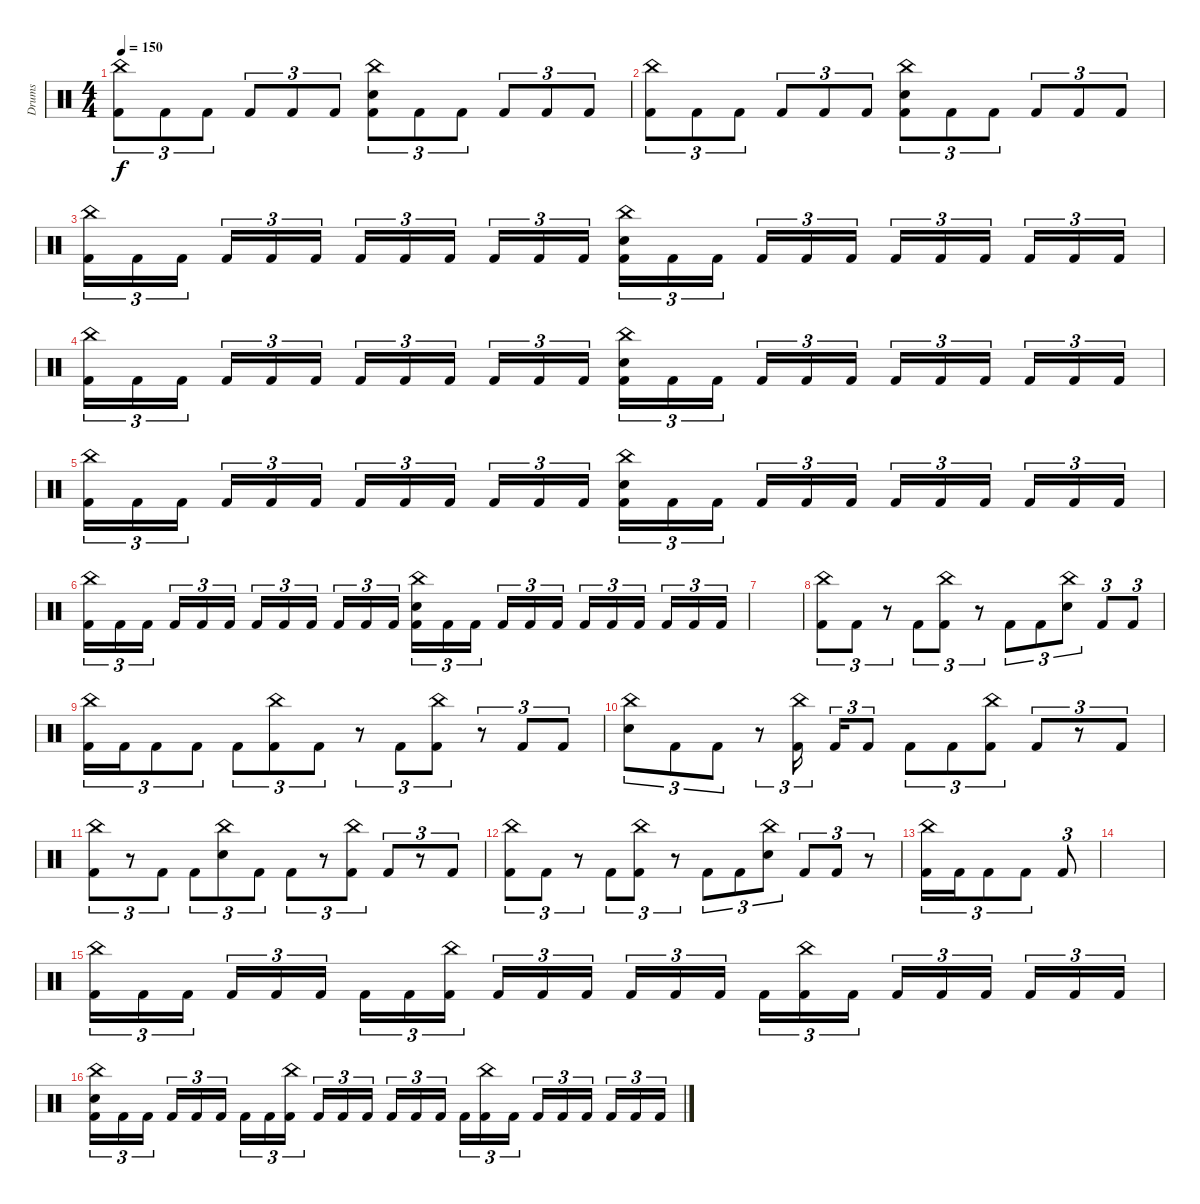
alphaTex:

\track ("Drums" "Drums") {instrument percussion}
\staff {score}
\articulation defaults
\ts (4 4)
\tempo 150
\clef neutral
\ks c
("China (hit)" "Kick (hit) 2").8{tu (3 2) dy f} "Kick (hit) 2".8{tu (3 2)} "Kick (hit) 2".8{tu (3 2)} "Kick (hit) 2".8{tu (3 2)} "Kick (hit) 2".8{tu (3 2)} "Kick (hit) 2".8{tu (3 2)} ("China (hit)" "Snare (hit) 2" "Kick (hit) 2").8{tu (3 2)} "Kick (hit) 2".8{tu (3 2)} "Kick (hit) 2".8{tu (3 2)} "Kick (hit) 2".8{tu (3 2)} "Kick (hit) 2".8{tu (3 2)} "Kick (hit) 2".8{tu (3 2)} |
("China (hit)" "Kick (hit) 2").8{tu (3 2)} "Kick (hit) 2".8{tu (3 2)} "Kick (hit) 2".8{tu (3 2)} "Kick (hit) 2".8{tu (3 2)} "Kick (hit) 2".8{tu (3 2)} "Kick (hit) 2".8{tu (3 2)} ("China (hit)" "Snare (hit) 2" "Kick (hit) 2").8{tu (3 2)} "Kick (hit) 2".8{tu (3 2)} "Kick (hit) 2".8{tu (3 2)} "Kick (hit) 2".8{tu (3 2)} "Kick (hit) 2".8{tu (3 2)} "Kick (hit) 2".8{tu (3 2)} |
("China (hit)" "Kick (hit) 2").16{tu (3 2)} "Kick (hit) 2".16{tu (3 2)} "Kick (hit) 2".16{tu (3 2) beam splitsecondary} "Kick (hit) 2".16{tu (3 2)} "Kick (hit) 2".16{tu (3 2)} "Kick (hit) 2".16{tu (3 2)} "Kick (hit) 2".16{tu (3 2)} "Kick (hit) 2".16{tu (3 2)} "Kick (hit) 2".16{tu (3 2) beam splitsecondary} "Kick (hit) 2".16{tu (3 2)} "Kick (hit) 2".16{tu (3 2)} "Kick (hit) 2".16{tu (3 2)} ("China (hit)" "Snare (hit) 2" "Kick (hit) 2").16{tu (3 2)} "Kick (hit) 2".16{tu (3 2)} "Kick (hit) 2".16{tu (3 2) beam splitsecondary} "Kick (hit) 2".16{tu (3 2)} "Kick (hit) 2".16{tu (3 2)} "Kick (hit) 2".16{tu (3 2)} "Kick (hit) 2".16{tu (3 2)} "Kick (hit) 2".16{tu (3 2)} "Kick (hit) 2".16{tu (3 2) beam splitsecondary} "Kick (hit) 2".16{tu (3 2)} "Kick (hit) 2".16{tu (3 2)} "Kick (hit) 2".16{tu (3 2)} |
("China (hit)" "Kick (hit) 2").16{tu (3 2)} "Kick (hit) 2".16{tu (3 2)} "Kick (hit) 2".16{tu (3 2) beam splitsecondary} "Kick (hit) 2".16{tu (3 2)} "Kick (hit) 2".16{tu (3 2)} "Kick (hit) 2".16{tu (3 2)} "Kick (hit) 2".16{tu (3 2)} "Kick (hit) 2".16{tu (3 2)} "Kick (hit) 2".16{tu (3 2) beam splitsecondary} "Kick (hit) 2".16{tu (3 2)} "Kick (hit) 2".16{tu (3 2)} "Kick (hit) 2".16{tu (3 2)} ("China (hit)" "Snare (hit) 2" "Kick (hit) 2").16{tu (3 2)} "Kick (hit) 2".16{tu (3 2)} "Kick (hit) 2".16{tu (3 2) beam splitsecondary} "Kick (hit) 2".16{tu (3 2)} "Kick (hit) 2".16{tu (3 2)} "Kick (hit) 2".16{tu (3 2)} "Kick (hit) 2".16{tu (3 2)} "Kick (hit) 2".16{tu (3 2)} "Kick (hit) 2".16{tu (3 2) beam splitsecondary} "Kick (hit) 2".16{tu (3 2)} "Kick (hit) 2".16{tu (3 2)} "Kick (hit) 2".16{tu (3 2)} |
("China (hit)" "Kick (hit) 2").16{tu (3 2)} "Kick (hit) 2".16{tu (3 2)} "Kick (hit) 2".16{tu (3 2) beam splitsecondary} "Kick (hit) 2".16{tu (3 2)} "Kick (hit) 2".16{tu (3 2)} "Kick (hit) 2".16{tu (3 2)} "Kick (hit) 2".16{tu (3 2)} "Kick (hit) 2".16{tu (3 2)} "Kick (hit) 2".16{tu (3 2) beam splitsecondary} "Kick (hit) 2".16{tu (3 2)} "Kick (hit) 2".16{tu (3 2)} "Kick (hit) 2".16{tu (3 2)} ("China (hit)" "Snare (hit) 2" "Kick (hit) 2").16{tu (3 2)} "Kick (hit) 2".16{tu (3 2)} "Kick (hit) 2".16{tu (3 2) beam splitsecondary} "Kick (hit) 2".16{tu (3 2)} "Kick (hit) 2".16{tu (3 2)} "Kick (hit) 2".16{tu (3 2)} "Kick (hit) 2".16{tu (3 2)} "Kick (hit) 2".16{tu (3 2)} "Kick (hit) 2".16{tu (3 2) beam splitsecondary} "Kick (hit) 2".16{tu (3 2)} "Kick (hit) 2".16{tu (3 2)} "Kick (hit) 2".16{tu (3 2)} |
("China (hit)" "Kick (hit) 2").16{tu (3 2)} "Kick (hit) 2".16{tu (3 2)} "Kick (hit) 2".16{tu (3 2) beam splitsecondary} "Kick (hit) 2".16{tu (3 2)} "Kick (hit) 2".16{tu (3 2)} "Kick (hit) 2".16{tu (3 2)} "Kick (hit) 2".16{tu (3 2)} "Kick (hit) 2".16{tu (3 2)} "Kick (hit) 2".16{tu (3 2) beam splitsecondary} "Kick (hit) 2".16{tu (3 2)} "Kick (hit) 2".16{tu (3 2)} "Kick (hit) 2".16{tu (3 2)} ("China (hit)" "Snare (hit) 2" "Kick (hit) 2").16{tu (3 2)} "Kick (hit) 2".16{tu (3 2)} "Kick (hit) 2".16{tu (3 2) beam splitsecondary} "Kick (hit) 2".16{tu (3 2)} "Kick (hit) 2".16{tu (3 2)} "Kick (hit) 2".16{tu (3 2)} "Kick (hit) 2".16{tu (3 2)} "Kick (hit) 2".16{tu (3 2)} "Kick (hit) 2".16{tu (3 2) beam splitsecondary} "Kick (hit) 2".16{tu (3 2)} "Kick (hit) 2".16{tu (3 2)} "Kick (hit) 2".16{tu (3 2)} |
|
("China (hit)" "Kick (hit) 2").8{tu (3 2)} "Kick (hit) 2".8{tu (3 2)} r.8{tu (3 2)} "Kick (hit) 2".8{tu (3 2)} ("China (hit)" "Kick (hit) 2").8{tu (3 2)} r.8{tu (3 2)} "Kick (hit) 2".8{tu (3 2)} "Kick (hit) 2".8{tu (3 2)} ("China (hit)" "Snare (hit) 2").8{tu (3 2)} "Kick (hit) 2".8{tu (3 2)} "Kick (hit) 2".8{tu (3 2)} |
("China (hit)" "Kick (hit) 2").16{tu (3 2)} "Kick (hit) 2".16{tu (3 2)} "Kick (hit) 2".8{tu (3 2)} "Kick (hit) 2".8{tu (3 2)} "Kick (hit) 2".8{tu (3 2)} ("China (hit)" "Kick (hit) 2").8{tu (3 2)} "Kick (hit) 2".8{tu (3 2)} r.8{tu (3 2)} "Kick (hit) 2".8{tu (3 2)} ("China (hit)" "Kick (hit) 2").8{tu (3 2)} r.8{tu (3 2)} "Kick (hit) 2".8{tu (3 2)} "Kick (hit) 2".8{tu (3 2)} |
("China (hit)" "Snare (hit) 2").8{tu (3 2)} "Kick (hit) 2".8{tu (3 2)} "Kick (hit) 2".8{tu (3 2)} r.8{tu (3 2)} ("China (hit)" "Kick (hit) 2").16{tu (3 2) beam splitsecondary} "Kick (hit) 2".16{tu (3 2)} "Kick (hit) 2".8{tu (3 2)} "Kick (hit) 2".8{tu (3 2)} "Kick (hit) 2".8{tu (3 2)} ("China (hit)" "Kick (hit) 2").8{tu (3 2)} "Kick (hit) 2".8{tu (3 2)} r.8{tu (3 2)} "Kick (hit) 2".8{tu (3 2)} |
("China (hit)" "Kick (hit) 2").8{tu (3 2)} r.8{tu (3 2)} "Kick (hit) 2".8{tu (3 2)} "Kick (hit) 2".8{tu (3 2)} ("China (hit)" "Snare (hit) 2").8{tu (3 2)} "Kick (hit) 2".8{tu (3 2)} "Kick (hit) 2".8{tu (3 2)} r.8{tu (3 2)} ("China (hit)" "Kick (hit) 2").8{tu (3 2)} "Kick (hit) 2".8{tu (3 2)} r.8{tu (3 2)} "Kick (hit) 2".8{tu (3 2)} |
("China (hit)" "Kick (hit) 2").8{tu (3 2)} "Kick (hit) 2".8{tu (3 2)} r.8{tu (3 2)} "Kick (hit) 2".8{tu (3 2)} ("China (hit)" "Kick (hit) 2").8{tu (3 2)} r.8{tu (3 2)} "Kick (hit) 2".8{tu (3 2)} "Kick (hit) 2".8{tu (3 2)} ("China (hit)" "Snare (hit) 2").8{tu (3 2)} "Kick (hit) 2".8{tu (3 2)} "Kick (hit) 2".8{tu (3 2)} r.8{tu (3 2)} |
("China (hit)" "Kick (hit) 2").16{tu (3 2)} "Kick (hit) 2".16{tu (3 2)} "Kick (hit) 2".8{tu (3 2)} "Kick (hit) 2".8{tu (3 2)} "Kick (hit) 2".8{tu (3 2)} |
|
("China (hit)" "Kick (hit) 2").16{tu (3 2)} "Kick (hit) 2".16{tu (3 2)} "Kick (hit) 2".16{tu (3 2) beam splitsecondary} "Kick (hit) 2".16{tu (3 2)} "Kick (hit) 2".16{tu (3 2)} "Kick (hit) 2".16{tu (3 2)} "Kick (hit) 2".16{tu (3 2)} "Kick (hit) 2".16{tu (3 2)} ("China (hit)" "Kick (hit) 2").16{tu (3 2) beam splitsecondary} "Kick (hit) 2".16{tu (3 2)} "Kick (hit) 2".16{tu (3 2)} "Kick (hit) 2".16{tu (3 2)} "Kick (hit) 2".16{tu (3 2)} "Kick (hit) 2".16{tu (3 2)} "Kick (hit) 2".16{tu (3 2) beam splitsecondary} "Kick (hit) 2".16{tu (3 2)} ("China (hit)" "Kick (hit) 2").16{tu (3 2)} "Kick (hit) 2".16{tu (3 2)} "Kick (hit) 2".16{tu (3 2)} "Kick (hit) 2".16{tu (3 2)} "Kick (hit) 2".16{tu (3 2) beam splitsecondary} "Kick (hit) 2".16{tu (3 2)} "Kick (hit) 2".16{tu (3 2)} "Kick (hit) 2".16{tu (3 2)} |
("China (hit)" "Snare (hit) 2" "Kick (hit) 2").16{tu (3 2)} "Kick (hit) 2".16{tu (3 2)} "Kick (hit) 2".16{tu (3 2) beam splitsecondary} "Kick (hit) 2".16{tu (3 2)} "Kick (hit) 2".16{tu (3 2)} "Kick (hit) 2".16{tu (3 2)} "Kick (hit) 2".16{tu (3 2)} "Kick (hit) 2".16{tu (3 2)} ("China (hit)" "Kick (hit) 2").16{tu (3 2) beam splitsecondary} "Kick (hit) 2".16{tu (3 2)} "Kick (hit) 2".16{tu (3 2)} "Kick (hit) 2".16{tu (3 2)} "Kick (hit) 2".16{tu (3 2)} "Kick (hit) 2".16{tu (3 2)} "Kick (hit) 2".16{tu (3 2) beam splitsecondary} "Kick (hit) 2".16{tu (3 2)} ("China (hit)" "Kick (hit) 2").16{tu (3 2)} "Kick (hit) 2".16{tu (3 2)} "Kick (hit) 2".16{tu (3 2)} "Kick (hit) 2".16{tu (3 2)} "Kick (hit) 2".16{tu (3 2) beam splitsecondary} "Kick (hit) 2".16{tu (3 2)} "Kick (hit) 2".16{tu (3 2)} "Kick (hit) 2".16{tu (3 2)}
